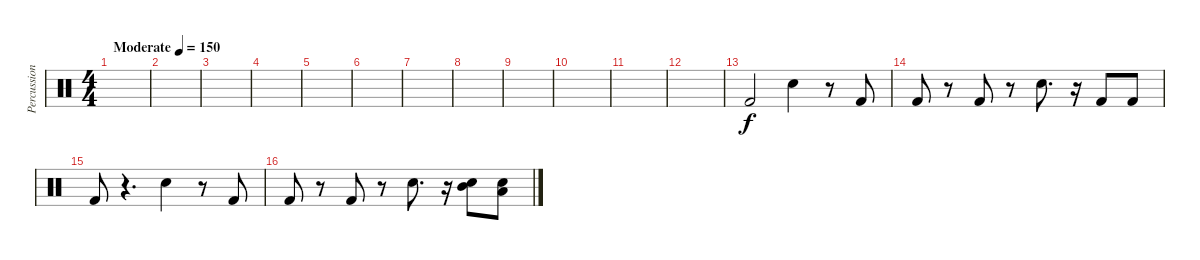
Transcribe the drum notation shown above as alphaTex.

\track ("Percussion" "Percussion") {instrument percussion}
\staff {score}
\articulation defaults
\ts (4 4)
\tempo (150 "Moderate")
\clef neutral
\ks c
|
|
|
|
|
|
|
|
|
|
|
|
"Kick (hit) 2".2 "Electric Snare (hit)".4 r.8 "Kick (hit) 2".8 |
"Kick (hit) 2".8 r.8 "Kick (hit) 2".8 r.8 "Electric Snare (hit)".8{d} r.16 "Kick (hit) 2".8 "Kick (hit) 2".8 |
"Kick (hit) 2".8 r.4{d} "Electric Snare (hit)".4 r.8 "Kick (hit) 2".8 |
"Kick (hit) 2".8 r.8 "Kick (hit) 2".8 r.8 "Electric Snare (hit)".8{d} r.16 ("Electric Snare (hit)" "Mid Tom (hit)").8 ("Electric Snare (hit)" "Low Tom (hit)").8
